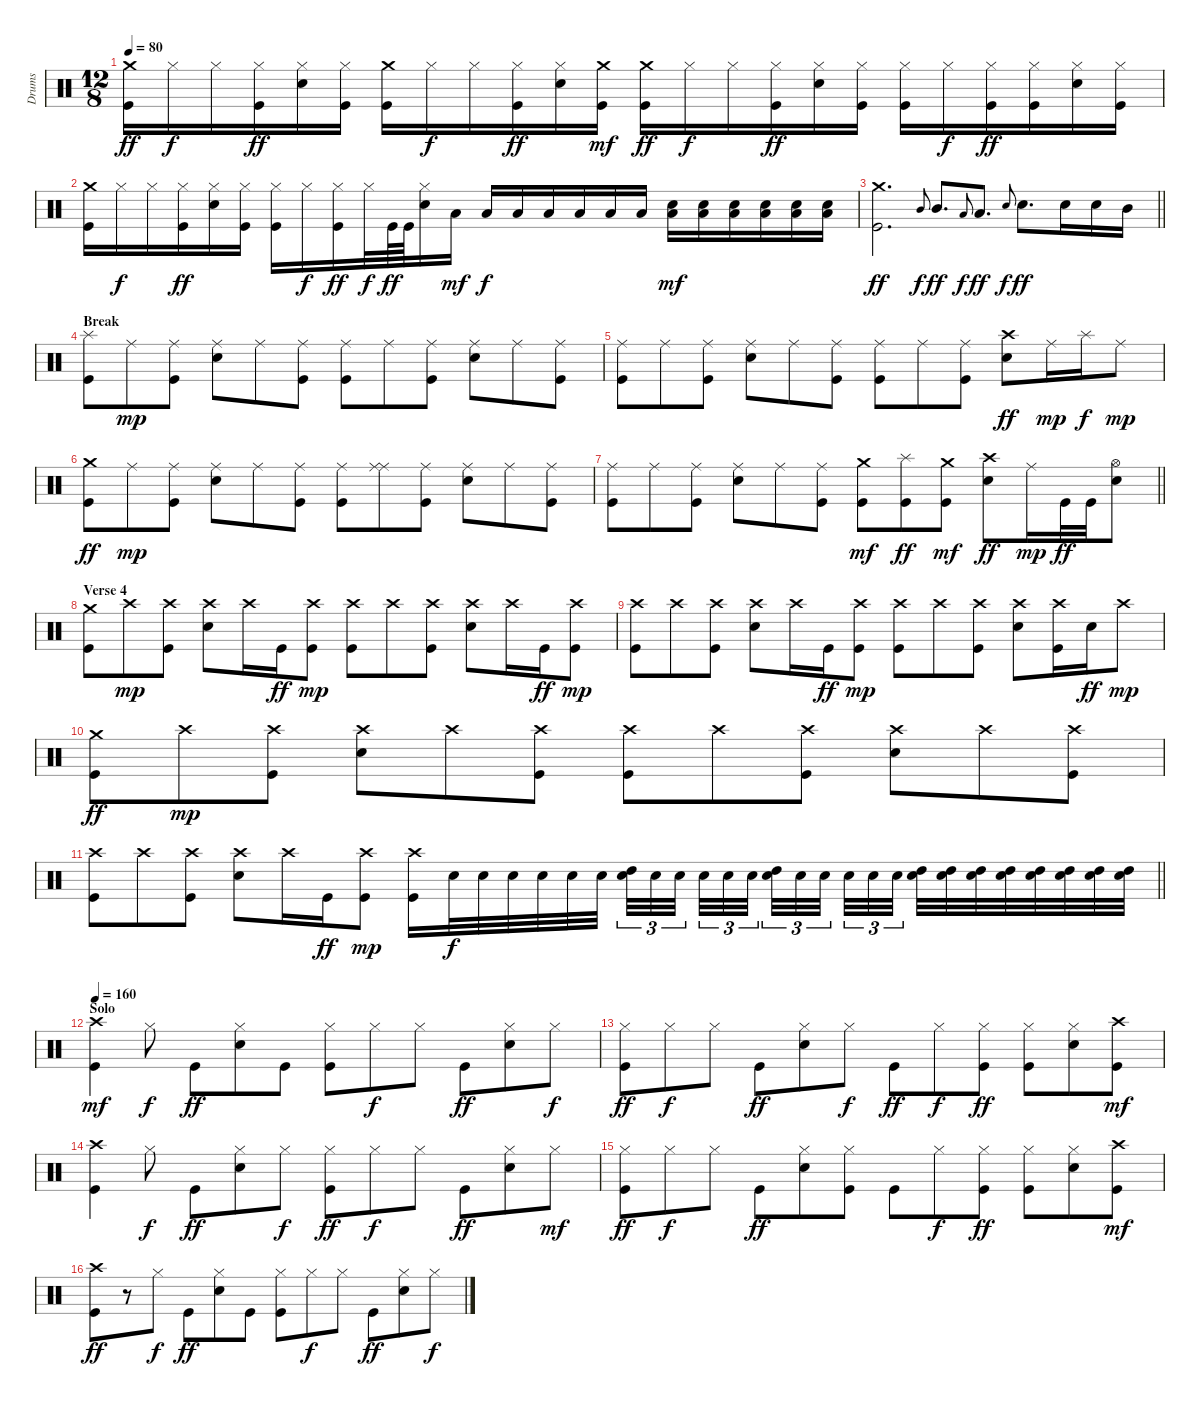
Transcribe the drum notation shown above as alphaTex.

\track ("Drums" "Drums") {instrument percussion}
\staff {score}
\articulation defaults
\ts (12 8)
\tempo 80
\clef neutral
\ks c
("Kick (hit)" "Crash medium (hit)").16{dy ff} "Hi-Hat (closed)".16{dy f} "Hi-Hat (closed)".16 ("Kick (hit)" "Hi-Hat (closed)").16{dy ff} ("Electric Snare (hit)" "Hi-Hat (closed)").16 ("Kick (hit)" "Hi-Hat (closed)").16 ("Kick (hit)" "Crash medium (hit)").16 "Hi-Hat (closed)".16{dy f} "Hi-Hat (closed)".16 ("Kick (hit)" "Hi-Hat (closed)").16{dy ff} ("Electric Snare (hit)" "Hi-Hat (closed)").16 ("Kick (hit)" "Crash medium (hit)").16{dy mf} ("Kick (hit)" "Crash medium (hit)").16{dy ff} "Hi-Hat (closed)".16{dy f} "Hi-Hat (closed)".16 ("Kick (hit)" "Hi-Hat (closed)").16{dy ff} ("Electric Snare (hit)" "Hi-Hat (closed)").16 ("Kick (hit)" "Hi-Hat (closed)").16 ("Kick (hit)" "Hi-Hat (closed)").16 "Hi-Hat (closed)".16{dy f} ("Kick (hit)" "Hi-Hat (closed)").16{dy ff} ("Kick (hit)" "Hi-Hat (closed)").16 ("Electric Snare (hit)" "Hi-Hat (closed)").16 ("Kick (hit)" "Hi-Hat (closed)").16 |
("Kick (hit)" "Crash medium (hit)").16 "Hi-Hat (closed)".16{dy f} "Hi-Hat (closed)".16 ("Kick (hit)" "Hi-Hat (closed)").16{dy ff} ("Electric Snare (hit)" "Hi-Hat (closed)").16 ("Kick (hit)" "Hi-Hat (closed)").16 ("Kick (hit)" "Hi-Hat (closed)").16 "Hi-Hat (closed)".16{dy f} ("Kick (hit)" "Hi-Hat (closed)").16{dy ff} "Hi-Hat (closed)".32{dy f} "Kick (hit)".64{dy ff} "Kick (hit)".64 ("Electric Snare (hit)" "Hi-Hat (closed)").16 "Low Tom (hit)".16{dy mf} "Low Tom (hit)".16{dy f} "Low Tom (hit)".16 "Low Tom (hit)".16 "Low Tom (hit)".16 "Low Tom (hit)".16 "Low Tom (hit)".16 ("Electric Snare (hit)" "Low Tom (hit)").16{dy mf} ("Electric Snare (hit)" "Low Tom (hit)").16 ("Electric Snare (hit)" "Low Tom (hit)").16 ("Electric Snare (hit)" "Low Tom (hit)").16 ("Electric Snare (hit)" "Low Tom (hit)").16 ("Electric Snare (hit)" "Low Tom (hit)").16 |
\barLineRight lightlight
("Kick (hit)" "Crash medium (hit)").2{d dy ff} "Mid Tom (hit)".8{gr onbeat dy f} "Mid Tom (hit)".8{d dy ff} "Low Tom (hit)".8{gr onbeat dy f} "Low Tom (hit)".8{d dy ff} "Electric Snare (hit)".8{gr onbeat dy f} "Electric Snare (hit)".8{d dy ff} "Electric Snare (hit)".16 "Electric Snare (hit)".16 "Mid Tom (hit)".16 |
\section ("" "Break")
("Kick (hit)" "Splash (hit)").8 "Ride (middle)".8{dy mp} ("Kick (hit)" "Ride (middle)").8 ("Electric Snare (hit)" "Ride (middle)").8 "Ride (middle)".8 ("Kick (hit)" "Ride (middle)").8 ("Kick (hit)" "Ride (middle)").8 "Ride (middle)".8 ("Kick (hit)" "Ride (middle)").8 ("Electric Snare (hit)" "Ride (middle)").8 "Ride (middle)".8 ("Kick (hit)" "Ride (middle)").8 |
("Kick (hit)" "Ride (middle)").8 "Ride (middle)".8 ("Kick (hit)" "Ride (middle)").8 ("Electric Snare (hit)" "Ride (middle)").8 "Ride (middle)".8 ("Kick (hit)" "Ride (middle)").8 ("Kick (hit)" "Ride (middle)").8 "Ride (middle)".8 ("Kick (hit)" "Ride (middle)").8 ("Electric Snare (hit)" "Crash high (hit)").8{dy ff} "Ride (middle)".16{dy mp} "Splash (hit)".16{dy f} "Ride (middle)".8{dy mp} |
("Kick (hit)" "Crash medium (hit)").8{dy ff} "Ride (middle)".8{dy mp} ("Kick (hit)" "Ride (middle)").8 ("Electric Snare (hit)" "Ride (middle)").8 "Ride (middle)".8 ("Kick (hit)" "Ride (middle)").8 ("Kick (hit)" "Ride (middle)").8 ("Ride (middle)" "Ride (middle)").8 ("Kick (hit)" "Ride (middle)").8 ("Electric Snare (hit)" "Ride (middle)").8 "Ride (middle)".8 ("Kick (hit)" "Ride (middle)").8 |
\barLineRight lightlight
("Kick (hit)" "Ride (middle)").8 "Ride (middle)".8 ("Kick (hit)" "Ride (middle)").8 ("Electric Snare (hit)" "Ride (middle)").8 "Ride (middle)".8 ("Kick (hit)" "Ride (middle)").8 ("Kick (hit)" "Crash medium (hit)").8{dy mf} ("Kick (hit)" "Splash (hit)").8{dy ff} ("Kick (hit)" "Crash medium (hit)").8{dy mf} ("Electric Snare (hit)" "Crash high (hit)").8{dy ff} "Ride (middle)".16{dy mp} "Kick (hit)".32{dy ff} "Kick (hit)".32 ("Electric Snare (hit)" "Hi-Hat (open)").8 |
\section ("" "Verse 4")
("Kick (hit)" "Crash medium (hit)").8 "Crash high (hit)".8{dy mp} ("Kick (hit)" "Crash high (hit)").8 ("Electric Snare (hit)" "Crash high (hit)").8 "Crash high (hit)".16 "Kick (hit)".16{dy ff} ("Kick (hit)" "Crash high (hit)").8{dy mp} ("Kick (hit)" "Crash high (hit)").8 "Crash high (hit)".8 ("Kick (hit)" "Crash high (hit)").8 ("Electric Snare (hit)" "Crash high (hit)").8 "Crash high (hit)".16 "Kick (hit)".16{dy ff} ("Kick (hit)" "Crash high (hit)").8{dy mp} |
("Kick (hit)" "Crash high (hit)").8 "Crash high (hit)".8 ("Kick (hit)" "Crash high (hit)").8 ("Electric Snare (hit)" "Crash high (hit)").8 "Crash high (hit)".16 "Kick (hit)".16{dy ff} ("Kick (hit)" "Crash high (hit)").8{dy mp} ("Kick (hit)" "Crash high (hit)").8 "Crash high (hit)".8 ("Kick (hit)" "Crash high (hit)").8 ("Electric Snare (hit)" "Crash high (hit)").8 ("Kick (hit)" "Crash high (hit)").16 "Electric Snare (hit)".16{dy ff} "Crash high (hit)".8{dy mp} |
("Kick (hit)" "Crash medium (hit)").8{dy ff} "Crash high (hit)".8{dy mp} ("Kick (hit)" "Crash high (hit)").8 ("Electric Snare (hit)" "Crash high (hit)").8 "Crash high (hit)".8 ("Kick (hit)" "Crash high (hit)").8 ("Kick (hit)" "Crash high (hit)").8 "Crash high (hit)".8 ("Kick (hit)" "Crash high (hit)").8 ("Electric Snare (hit)" "Crash high (hit)").8 "Crash high (hit)".8 ("Kick (hit)" "Crash high (hit)").8 |
\barLineRight lightlight
("Kick (hit)" "Crash high (hit)").8 "Crash high (hit)".8 ("Kick (hit)" "Crash high (hit)").8 ("Electric Snare (hit)" "Crash high (hit)").8 "Crash high (hit)".16 "Kick (hit)".16{dy ff} ("Kick (hit)" "Crash high (hit)").8{dy mp} ("Kick (hit)" "Crash high (hit)").16 "Electric Snare (hit)".32{dy f} "Electric Snare (hit)".32 "Electric Snare (hit)".32 "Electric Snare (hit)".32 "Electric Snare (hit)".32 "Electric Snare (hit)".32{beam splitsecondary} ("Electric Snare (hit)" "High Tom (hit)").32{tu (3 2)} "Electric Snare (hit)".32{tu (3 2)} "Electric Snare (hit)".32{tu (3 2) beam splitsecondary} "Electric Snare (hit)".32{tu (3 2)} "Electric Snare (hit)".32{tu (3 2)} "Electric Snare (hit)".32{tu (3 2)} ("Electric Snare (hit)" "High Tom (hit)").32{tu (3 2)} "Electric Snare (hit)".32{tu (3 2)} "Electric Snare (hit)".32{tu (3 2) beam splitsecondary} "Electric Snare (hit)".32{tu (3 2)} "Electric Snare (hit)".32{tu (3 2)} "Electric Snare (hit)".32{tu (3 2) beam splitsecondary} ("Electric Snare (hit)" "High Tom (hit)").32 ("Electric Snare (hit)" "High Tom (hit)").32 ("Electric Snare (hit)" "High Tom (hit)").32 ("Electric Snare (hit)" "High Tom (hit)").32 ("Electric Snare (hit)" "High Tom (hit)").32 ("Electric Snare (hit)" "High Tom (hit)").32 ("Electric Snare (hit)" "High Tom (hit)").32 ("Electric Snare (hit)" "High Tom (hit)").32 |
\section ("" "Solo")
\tempo 160
("Kick (hit)" "Crash high (hit)").4{dy mf} "Hi-Hat (closed)".8{dy f} "Kick (hit)".8{dy ff} ("Electric Snare (hit)" "Hi-Hat (closed)").8 "Kick (hit)".8 ("Kick (hit)" "Hi-Hat (closed)").8 "Hi-Hat (closed)".8{dy f} "Hi-Hat (closed)".8 "Kick (hit)".8{dy ff} ("Electric Snare (hit)" "Hi-Hat (closed)").8 "Hi-Hat (closed)".8{dy f} |
("Kick (hit)" "Hi-Hat (closed)").8{dy ff} "Hi-Hat (closed)".8{dy f} "Hi-Hat (closed)".8 "Kick (hit)".8{dy ff} ("Electric Snare (hit)" "Hi-Hat (closed)").8 "Hi-Hat (closed)".8{dy f} "Kick (hit)".8{dy ff} "Hi-Hat (closed)".8{dy f} ("Kick (hit)" "Hi-Hat (closed)").8{dy ff} ("Kick (hit)" "Hi-Hat (closed)").8 ("Electric Snare (hit)" "Hi-Hat (closed)").8 ("Kick (hit)" "Crash high (hit)").8{dy mf} |
("Kick (hit)" "Crash high (hit)").4 "Hi-Hat (closed)".8{dy f} "Kick (hit)".8{dy ff} ("Electric Snare (hit)" "Hi-Hat (closed)").8 "Hi-Hat (closed)".8{dy f} ("Kick (hit)" "Hi-Hat (closed)").8{dy ff} "Hi-Hat (closed)".8{dy f} "Hi-Hat (closed)".8 "Kick (hit)".8{dy ff} ("Electric Snare (hit)" "Hi-Hat (closed)").8 "Hi-Hat (closed)".8{dy mf} |
("Kick (hit)" "Hi-Hat (closed)").8{dy ff} "Hi-Hat (closed)".8{dy f} "Hi-Hat (closed)".8 "Kick (hit)".8{dy ff} ("Electric Snare (hit)" "Hi-Hat (closed)").8 ("Kick (hit)" "Hi-Hat (closed)").8 "Kick (hit)".8 "Hi-Hat (closed)".8{dy f} ("Kick (hit)" "Hi-Hat (closed)").8{dy ff} ("Kick (hit)" "Hi-Hat (closed)").8 ("Electric Snare (hit)" "Hi-Hat (closed)").8 ("Kick (hit)" "Crash high (hit)").8{dy mf} |
("Kick (hit)" "Crash high (hit)").8{dy ff} r.8 "Hi-Hat (closed)".8{dy f} "Kick (hit)".8{dy ff} ("Electric Snare (hit)" "Hi-Hat (closed)").8 "Kick (hit)".8 ("Kick (hit)" "Hi-Hat (closed)").8 "Hi-Hat (closed)".8{dy f} "Hi-Hat (closed)".8 "Kick (hit)".8{dy ff} ("Electric Snare (hit)" "Hi-Hat (closed)").8 "Hi-Hat (closed)".8{dy f}
